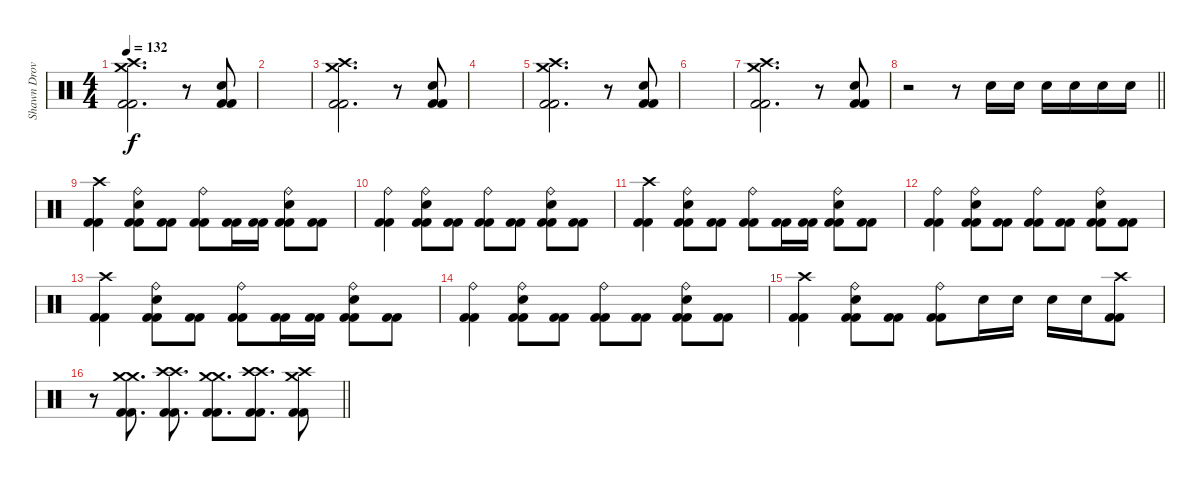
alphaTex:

\track ("Shawn Drover" "Shawn Drov") {instrument percussion}
\staff {score}
\articulation defaults
\ts (4 4)
\tempo 132
\clef neutral
\ks c
("Crash high (hit)" "Crash medium (hit)" "Kick (hit) 2" "Kick (hit) 2").2{d dy f} r.8 ("Electric Snare (hit)" "Kick (hit) 2" "Kick (hit) 2").8 |
|
("Crash high (hit)" "Crash medium (hit)" "Kick (hit) 2" "Kick (hit) 2").2{d} r.8 ("Electric Snare (hit)" "Kick (hit) 2" "Kick (hit) 2").8 |
|
("Crash high (hit)" "Crash medium (hit)" "Kick (hit) 2" "Kick (hit) 2").2{d} r.8 ("Electric Snare (hit)" "Kick (hit) 2" "Kick (hit) 2").8 |
|
("Crash high (hit)" "Crash medium (hit)" "Kick (hit) 2" "Kick (hit) 2").2{d} r.8 ("Electric Snare (hit)" "Kick (hit) 2" "Kick (hit) 2").8 |
\barLineRight lightlight
r.2 r.8 "Electric Snare (hit)".16 "Electric Snare (hit)".16 "Electric Snare (hit)".16 "Electric Snare (hit)".16 "Electric Snare (hit)".16 "Electric Snare (hit)".16 |
("Crash high (hit)" "Kick (hit) 2" "Kick (hit) 2").4 ("Ride (bell)" "Electric Snare (hit)" "Kick (hit) 2" "Kick (hit) 2").8 ("Kick (hit) 2" "Kick (hit) 2").8 ("Ride (bell)" "Kick (hit) 2" "Kick (hit) 2").8 ("Kick (hit) 2" "Kick (hit) 2").16 ("Kick (hit) 2" "Kick (hit) 2").16 ("Ride (bell)" "Electric Snare (hit)" "Kick (hit) 2" "Kick (hit) 2").8 ("Kick (hit) 2" "Kick (hit) 2").8 |
("Ride (bell)" "Kick (hit) 2" "Kick (hit) 2").4 ("Ride (bell)" "Electric Snare (hit)" "Kick (hit) 2" "Kick (hit) 2").8 ("Kick (hit) 2" "Kick (hit) 2").8 ("Ride (bell)" "Kick (hit) 2" "Kick (hit) 2").8 ("Kick (hit) 2" "Kick (hit) 2").8 ("Ride (bell)" "Electric Snare (hit)" "Kick (hit) 2" "Kick (hit) 2").8 ("Kick (hit) 2" "Kick (hit) 2").8 |
("Crash high (hit)" "Kick (hit) 2" "Kick (hit) 2").4 ("Ride (bell)" "Electric Snare (hit)" "Kick (hit) 2" "Kick (hit) 2").8 ("Kick (hit) 2" "Kick (hit) 2").8 ("Ride (bell)" "Kick (hit) 2" "Kick (hit) 2").8 ("Kick (hit) 2" "Kick (hit) 2").16 ("Kick (hit) 2" "Kick (hit) 2").16 ("Ride (bell)" "Electric Snare (hit)" "Kick (hit) 2" "Kick (hit) 2").8 ("Kick (hit) 2" "Kick (hit) 2").8 |
("Ride (bell)" "Kick (hit) 2" "Kick (hit) 2").4 ("Ride (bell)" "Electric Snare (hit)" "Kick (hit) 2" "Kick (hit) 2").8 ("Kick (hit) 2" "Kick (hit) 2").8 ("Ride (bell)" "Kick (hit) 2" "Kick (hit) 2").8 ("Kick (hit) 2" "Kick (hit) 2").8 ("Ride (bell)" "Electric Snare (hit)" "Kick (hit) 2" "Kick (hit) 2").8 ("Kick (hit) 2" "Kick (hit) 2").8 |
("Crash high (hit)" "Kick (hit) 2" "Kick (hit) 2").4 ("Ride (bell)" "Electric Snare (hit)" "Kick (hit) 2" "Kick (hit) 2").8 ("Kick (hit) 2" "Kick (hit) 2").8 ("Ride (bell)" "Kick (hit) 2" "Kick (hit) 2").8 ("Kick (hit) 2" "Kick (hit) 2").16 ("Kick (hit) 2" "Kick (hit) 2").16 ("Ride (bell)" "Electric Snare (hit)" "Kick (hit) 2" "Kick (hit) 2").8 ("Kick (hit) 2" "Kick (hit) 2").8 |
("Ride (bell)" "Kick (hit) 2" "Kick (hit) 2").4 ("Ride (bell)" "Electric Snare (hit)" "Kick (hit) 2" "Kick (hit) 2").8 ("Kick (hit) 2" "Kick (hit) 2").8 ("Ride (bell)" "Kick (hit) 2" "Kick (hit) 2").8 ("Kick (hit) 2" "Kick (hit) 2").8 ("Ride (bell)" "Electric Snare (hit)" "Kick (hit) 2" "Kick (hit) 2").8 ("Kick (hit) 2" "Kick (hit) 2").8 |
("Crash high (hit)" "Kick (hit) 2" "Kick (hit) 2").4 ("Ride (bell)" "Electric Snare (hit)" "Kick (hit) 2" "Kick (hit) 2").8 ("Kick (hit) 2" "Kick (hit) 2").8 ("Ride (bell)" "Kick (hit) 2" "Kick (hit) 2").8 "Electric Snare (hit)".16 "Electric Snare (hit)".16 "Electric Snare (hit)".16 "Electric Snare (hit)".16 ("Crash high (hit)" "Kick (hit) 2" "Kick (hit) 2").8 |
\barLineRight lightlight
r.8 ("Crash medium (hit)" "Crash medium (hit)" "Kick (hit) 2" "Kick (hit) 2").8{d} ("Crash high (hit)" "Crash high (hit)" "Kick (hit) 2" "Kick (hit) 2").8{d} ("Crash medium (hit)" "Crash medium (hit)" "Kick (hit) 2" "Kick (hit) 2").8{d} ("Crash high (hit)" "Crash high (hit)" "Kick (hit) 2" "Kick (hit) 2").8{d} ("Crash high (hit)" "Crash medium (hit)" "Kick (hit) 2" "Kick (hit) 2").8
